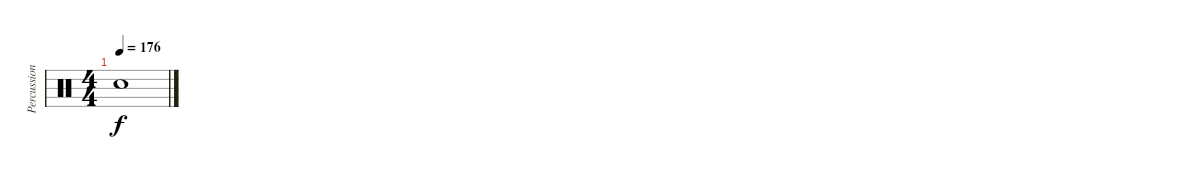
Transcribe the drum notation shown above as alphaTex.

\track ("Percussions" "Percussion") {instrument percussion}
\staff {score}
\articulation defaults
\ts (4 4)
\tempo 176
\clef neutral
\ks c "Snare (hit)"{t}.1{dy f}
